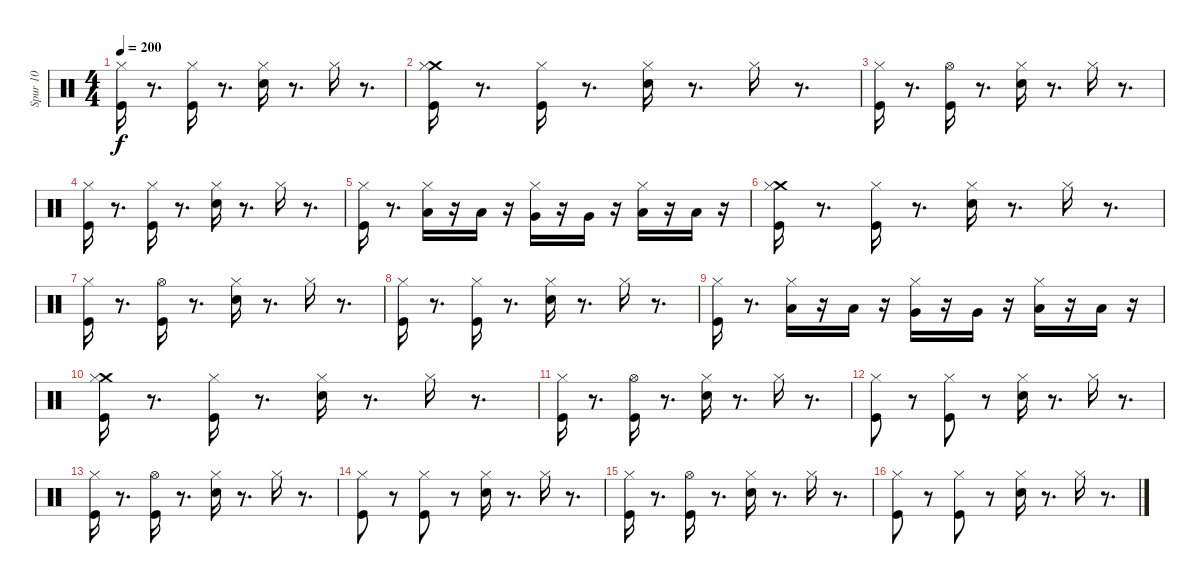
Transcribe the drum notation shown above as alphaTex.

\track ("Spur 10" "Spur 10") {instrument percussion}
\staff {score}
\articulation defaults
\ts (4 4)
\tempo 200
\clef neutral
\ks c
("Kick (hit)" "Hi-Hat (closed)").16{dy f} r.8{d} ("Kick (hit)" "Hi-Hat (closed)").16 r.8{d} ("Snare (hit) 2" "Hi-Hat (closed)").16 r.8{d} "Hi-Hat (closed)".16 r.8{d} |
("Kick (hit)" "Crash medium (hit)" "Hi-Hat (closed)").16 r.8{d} ("Kick (hit)" "Hi-Hat (closed)").16 r.8{d} ("Snare (hit) 2" "Hi-Hat (closed)").16 r.8{d} "Hi-Hat (closed)".16 r.8{d} |
("Kick (hit)" "Hi-Hat (closed)").16 r.8{d} ("Kick (hit)" "Hi-Hat (open)").16 r.8{d} ("Snare (hit) 2" "Hi-Hat (closed)").16 r.8{d} "Hi-Hat (closed)".16 r.8{d} |
("Kick (hit)" "Hi-Hat (closed)").16 r.8{d} ("Kick (hit)" "Hi-Hat (closed)").16 r.8{d} ("Snare (hit) 2" "Hi-Hat (closed)").16 r.8{d} "Hi-Hat (closed)".16 r.8{d} |
("Kick (hit)" "Hi-Hat (closed)").16 r.8{d} ("Low Floor Tom (hit)" "Hi-Hat (closed)").16 r.16 "Low Floor Tom (hit)".16 r.16 ("Very Low Tom (hit)" "Hi-Hat (closed)").16 r.16 "Very Low Tom (hit)".16 r.16 ("Low Tom (hit)" "Hi-Hat (closed)").16 r.16 "Low Tom (hit)".16 r.16 |
("Kick (hit)" "Crash medium (hit)" "Hi-Hat (closed)").16 r.8{d} ("Kick (hit)" "Hi-Hat (closed)").16 r.8{d} ("Snare (hit) 2" "Hi-Hat (closed)").16 r.8{d} "Hi-Hat (closed)".16 r.8{d} |
("Kick (hit)" "Hi-Hat (closed)").16 r.8{d} ("Kick (hit)" "Hi-Hat (open)").16 r.8{d} ("Snare (hit) 2" "Hi-Hat (closed)").16 r.8{d} "Hi-Hat (closed)".16 r.8{d} |
("Kick (hit)" "Hi-Hat (closed)").16 r.8{d} ("Kick (hit)" "Hi-Hat (closed)").16 r.8{d} ("Snare (hit) 2" "Hi-Hat (closed)").16 r.8{d} "Hi-Hat (closed)".16 r.8{d} |
("Kick (hit)" "Hi-Hat (closed)").16 r.8{d} ("Low Floor Tom (hit)" "Hi-Hat (closed)").16 r.16 "Low Floor Tom (hit)".16 r.16 ("Very Low Tom (hit)" "Hi-Hat (closed)").16 r.16 "Very Low Tom (hit)".16 r.16 ("Low Tom (hit)" "Hi-Hat (closed)").16 r.16 "Low Tom (hit)".16 r.16 |
("Kick (hit)" "Crash medium (hit)" "Hi-Hat (closed)").16 r.8{d} ("Kick (hit)" "Hi-Hat (closed)").16 r.8{d} ("Snare (hit) 2" "Hi-Hat (closed)").16 r.8{d} "Hi-Hat (closed)".16 r.8{d} |
("Kick (hit)" "Hi-Hat (closed)").16 r.8{d} ("Kick (hit)" "Hi-Hat (open)").16 r.8{d} ("Snare (hit) 2" "Hi-Hat (closed)").16 r.8{d} "Hi-Hat (closed)".16 r.8{d} |
("Hi-Hat (closed)" "Kick (hit)").8 r.8 ("Kick (hit)" "Hi-Hat (closed)").8 r.8 ("Snare (hit) 2" "Hi-Hat (closed)").16 r.8{d} "Hi-Hat (closed)".16 r.8{d} |
("Kick (hit)" "Hi-Hat (closed)").16 r.8{d} ("Kick (hit)" "Hi-Hat (open)").16 r.8{d} ("Snare (hit) 2" "Hi-Hat (closed)").16 r.8{d} "Hi-Hat (closed)".16 r.8{d} |
("Hi-Hat (closed)" "Kick (hit)").8 r.8 ("Kick (hit)" "Hi-Hat (closed)").8 r.8 ("Snare (hit) 2" "Hi-Hat (closed)").16 r.8{d} "Hi-Hat (closed)".16 r.8{d} |
("Kick (hit)" "Hi-Hat (closed)").16 r.8{d} ("Kick (hit)" "Hi-Hat (open)").16 r.8{d} ("Snare (hit) 2" "Hi-Hat (closed)").16 r.8{d} "Hi-Hat (closed)".16 r.8{d} |
("Hi-Hat (closed)" "Kick (hit)").8 r.8 ("Kick (hit)" "Hi-Hat (closed)").8 r.8 ("Snare (hit) 2" "Hi-Hat (closed)").16 r.8{d} "Hi-Hat (closed)".16 r.8{d}
